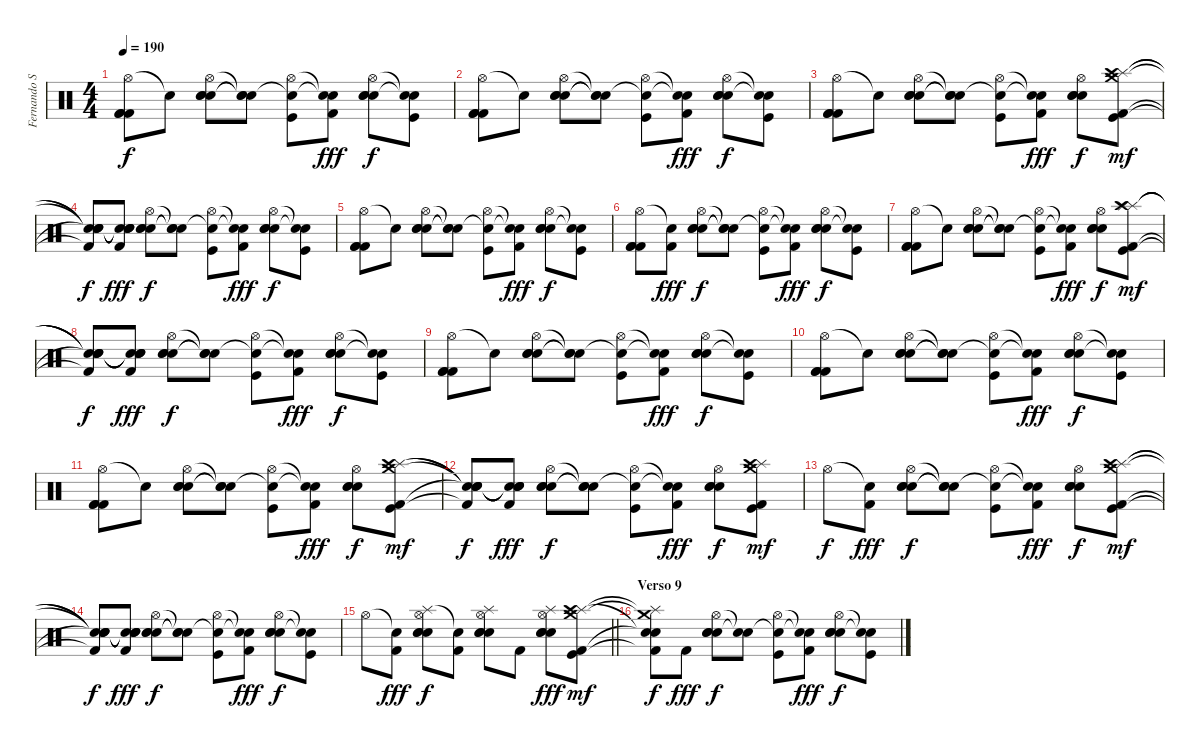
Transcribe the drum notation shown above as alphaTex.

\track ("Fernando Sarcella" "Fernando S") {instrument percussion}
\staff {score}
\articulation defaults
\ts (4 4)
\tempo 190
\clef neutral
\ks c
("Hi-Hat (open)" "Kick (hit) 2" "Kick (hit) 2" "Kick (hit) 2").8{dy f} "Snare (hit)"{t}.8 ("Hi-Hat (open)" "Electric Snare (hit)" "Electric Snare (hit)" "Electric Snare (hit)").8 ("Snare (hit)"{t} "Snare (hit)"{t} "Snare (hit)"{t}).8 ("Hi-Hat (open)" "Snare (hit)"{t} "Kick (hit)").8 ("Snare (hit)"{t} "Snare (hit)"{t} "Kick (hit) 2").8{dy fff} ("Hi-Hat (open)" "Electric Snare (hit)" "Electric Snare (hit)" "Electric Snare (hit)").8{dy f} ("Snare (hit)"{t} "Snare (hit)"{t} "Kick (hit)").8 |
("Hi-Hat (open)" "Kick (hit) 2" "Kick (hit) 2" "Kick (hit) 2").8 "Snare (hit)"{t}.8 ("Hi-Hat (open)" "Electric Snare (hit)" "Electric Snare (hit)" "Electric Snare (hit)").8 ("Snare (hit)"{t} "Snare (hit)"{t} "Snare (hit)"{t}).8 ("Hi-Hat (open)" "Snare (hit)"{t} "Kick (hit)").8 ("Snare (hit)"{t} "Snare (hit)"{t} "Kick (hit) 2").8{dy fff} ("Hi-Hat (open)" "Electric Snare (hit)" "Electric Snare (hit)" "Electric Snare (hit)").8{dy f} ("Snare (hit)"{t} "Snare (hit)"{t} "Kick (hit)").8 |
("Hi-Hat (open)" "Kick (hit) 2" "Kick (hit) 2" "Kick (hit) 2").8 "Snare (hit)"{t}.8 ("Hi-Hat (open)" "Electric Snare (hit)" "Electric Snare (hit)" "Electric Snare (hit)").8 ("Snare (hit)"{t} "Snare (hit)"{t} "Snare (hit)"{t}).8 ("Hi-Hat (open)" "Snare (hit)"{t} "Kick (hit)").8 ("Snare (hit)"{t} "Snare (hit)"{t} "Kick (hit) 2").8{dy fff} ("Hi-Hat (open)" "Electric Snare (hit)" "Electric Snare (hit)" "Electric Snare (hit)").8{dy f} ("Crash medium (hit)" "Splash (hit)" "Crash high (hit)" "Kick (hit) 2" "Kick (hit)").8{dy mf} |
("Snare (hit)"{t} "Snare (hit)"{t} "Snare (hit)"{t} "Snare (hit)"{t} "Kick (hit) 2"{t}).8{dy f} ("Snare (hit)"{t} "Snare (hit)"{t} "Snare (hit)"{t} "Snare (hit)"{t} "Kick (hit) 2").8{dy fff} ("Hi-Hat (open)" "Electric Snare (hit)" "Electric Snare (hit)" "Electric Snare (hit)").8{dy f} ("Snare (hit)"{t} "Snare (hit)"{t} "Snare (hit)"{t}).8 ("Hi-Hat (open)" "Snare (hit)"{t} "Kick (hit)").8 ("Snare (hit)"{t} "Snare (hit)"{t} "Kick (hit) 2").8{dy fff} ("Hi-Hat (open)" "Electric Snare (hit)" "Electric Snare (hit)" "Electric Snare (hit)").8{dy f} ("Snare (hit)"{t} "Snare (hit)"{t} "Kick (hit)").8 |
("Hi-Hat (open)" "Kick (hit) 2" "Kick (hit) 2" "Kick (hit) 2").8 "Snare (hit)"{t}.8 ("Hi-Hat (open)" "Electric Snare (hit)" "Electric Snare (hit)" "Electric Snare (hit)").8 ("Snare (hit)"{t} "Snare (hit)"{t} "Snare (hit)"{t}).8 ("Hi-Hat (open)" "Snare (hit)"{t} "Kick (hit)").8 ("Snare (hit)"{t} "Snare (hit)"{t} "Kick (hit) 2").8{dy fff} ("Hi-Hat (open)" "Electric Snare (hit)" "Electric Snare (hit)" "Electric Snare (hit)").8{dy f} ("Snare (hit)"{t} "Snare (hit)"{t} "Kick (hit)").8 |
("Hi-Hat (open)" "Kick (hit) 2" "Kick (hit) 2" "Kick (hit) 2").8 ("Snare (hit)"{t} "Kick (hit) 2").8{dy fff} ("Hi-Hat (open)" "Electric Snare (hit)" "Electric Snare (hit)" "Electric Snare (hit)").8{dy f} ("Snare (hit)"{t} "Snare (hit)"{t} "Snare (hit)"{t}).8 ("Hi-Hat (open)" "Snare (hit)"{t} "Kick (hit)").8 ("Snare (hit)"{t} "Snare (hit)"{t} "Kick (hit) 2").8{dy fff} ("Hi-Hat (open)" "Electric Snare (hit)" "Electric Snare (hit)" "Electric Snare (hit)").8{dy f} ("Snare (hit)"{t} "Snare (hit)"{t} "Kick (hit)").8 |
("Hi-Hat (open)" "Kick (hit) 2" "Kick (hit) 2" "Kick (hit) 2").8 "Snare (hit)"{t}.8 ("Hi-Hat (open)" "Electric Snare (hit)" "Electric Snare (hit)" "Electric Snare (hit)").8 ("Snare (hit)"{t} "Snare (hit)"{t} "Snare (hit)"{t}).8 ("Hi-Hat (open)" "Snare (hit)"{t} "Kick (hit)").8 ("Snare (hit)"{t} "Snare (hit)"{t} "Kick (hit) 2").8{dy fff} ("Hi-Hat (open)" "Electric Snare (hit)" "Electric Snare (hit)" "Electric Snare (hit)").8{dy f} ("Splash (hit)" "Splash (hit)" "Crash high (hit)" "Kick (hit) 2" "Kick (hit)").8{dy mf} |
("Snare (hit)"{t} "Snare (hit)"{t} "Snare (hit)"{t} "Snare (hit)"{t} "Kick (hit) 2"{t}).8{dy f} ("Snare (hit)"{t} "Snare (hit)"{t} "Snare (hit)"{t} "Snare (hit)"{t} "Kick (hit) 2").8{dy fff} ("Hi-Hat (open)" "Electric Snare (hit)" "Electric Snare (hit)" "Electric Snare (hit)").8{dy f} ("Snare (hit)"{t} "Snare (hit)"{t} "Snare (hit)"{t}).8 ("Hi-Hat (open)" "Snare (hit)"{t} "Kick (hit)").8 ("Snare (hit)"{t} "Snare (hit)"{t} "Kick (hit) 2").8{dy fff} ("Hi-Hat (open)" "Electric Snare (hit)" "Electric Snare (hit)" "Electric Snare (hit)").8{dy f} ("Snare (hit)"{t} "Snare (hit)"{t} "Kick (hit)").8 |
("Hi-Hat (open)" "Kick (hit) 2" "Kick (hit) 2" "Kick (hit) 2").8 "Snare (hit)"{t}.8 ("Hi-Hat (open)" "Electric Snare (hit)" "Electric Snare (hit)" "Electric Snare (hit)").8 ("Snare (hit)"{t} "Snare (hit)"{t} "Snare (hit)"{t}).8 ("Hi-Hat (open)" "Snare (hit)"{t} "Kick (hit)").8 ("Snare (hit)"{t} "Snare (hit)"{t} "Kick (hit) 2").8{dy fff} ("Hi-Hat (open)" "Electric Snare (hit)" "Electric Snare (hit)" "Electric Snare (hit)").8{dy f} ("Snare (hit)"{t} "Snare (hit)"{t} "Kick (hit)").8 |
("Hi-Hat (open)" "Kick (hit) 2" "Kick (hit) 2" "Kick (hit) 2").8 "Snare (hit)"{t}.8 ("Hi-Hat (open)" "Electric Snare (hit)" "Electric Snare (hit)" "Electric Snare (hit)").8 ("Snare (hit)"{t} "Snare (hit)"{t} "Snare (hit)"{t}).8 ("Hi-Hat (open)" "Snare (hit)"{t} "Kick (hit)").8 ("Snare (hit)"{t} "Snare (hit)"{t} "Kick (hit) 2").8{dy fff} ("Hi-Hat (open)" "Electric Snare (hit)" "Electric Snare (hit)" "Electric Snare (hit)").8{dy f} ("Snare (hit)"{t} "Snare (hit)"{t} "Kick (hit)").8 |
("Hi-Hat (open)" "Kick (hit) 2" "Kick (hit) 2" "Kick (hit) 2").8 "Snare (hit)"{t}.8 ("Hi-Hat (open)" "Electric Snare (hit)" "Electric Snare (hit)" "Electric Snare (hit)").8 ("Snare (hit)"{t} "Snare (hit)"{t} "Snare (hit)"{t}).8 ("Hi-Hat (open)" "Snare (hit)"{t} "Kick (hit)").8 ("Snare (hit)"{t} "Snare (hit)"{t} "Kick (hit) 2").8{dy fff} ("Hi-Hat (open)" "Electric Snare (hit)" "Electric Snare (hit)" "Electric Snare (hit)").8{dy f} ("Crash medium (hit)" "Splash (hit)" "Crash high (hit)" "Kick (hit) 2" "Kick (hit)").8{dy mf} |
("Snare (hit)"{t} "Snare (hit)"{t} "Snare (hit)"{t} "Snare (hit)"{t} "Kick (hit) 2"{t}).8{dy f} ("Snare (hit)"{t} "Snare (hit)"{t} "Snare (hit)"{t} "Snare (hit)"{t} "Kick (hit) 2").8{dy fff} ("Hi-Hat (open)" "Electric Snare (hit)" "Electric Snare (hit)" "Electric Snare (hit)").8{dy f} ("Snare (hit)"{t} "Snare (hit)"{t} "Snare (hit)"{t}).8 ("Hi-Hat (open)" "Snare (hit)"{t} "Kick (hit)").8 ("Snare (hit)"{t} "Snare (hit)"{t} "Kick (hit) 2").8{dy fff} ("Hi-Hat (open)" "Electric Snare (hit)" "Electric Snare (hit)" "Electric Snare (hit)").8{dy f} ("Crash medium (hit)" "Splash (hit)" "Crash high (hit)" "Kick (hit) 2" "Kick (hit)").8{dy mf} |
"Hi-Hat (open)".8{dy f} ("Snare (hit)"{t} "Kick (hit) 2").8{dy fff} ("Hi-Hat (open)" "Electric Snare (hit)" "Electric Snare (hit)" "Electric Snare (hit)").8{dy f} ("Snare (hit)"{t} "Snare (hit)"{t} "Snare (hit)"{t}).8 ("Hi-Hat (open)" "Snare (hit)"{t} "Kick (hit)").8 ("Snare (hit)"{t} "Snare (hit)"{t} "Kick (hit) 2").8{dy fff} ("Hi-Hat (open)" "Electric Snare (hit)" "Electric Snare (hit)" "Electric Snare (hit)").8{dy f} ("Crash medium (hit)" "Splash (hit)" "Crash high (hit)" "Kick (hit) 2" "Kick (hit)").8{dy mf} |
("Snare (hit)"{t} "Snare (hit)"{t} "Snare (hit)"{t} "Snare (hit)"{t} "Kick (hit) 2"{t}).8{dy f} ("Snare (hit)"{t} "Snare (hit)"{t} "Snare (hit)"{t} "Snare (hit)"{t} "Kick (hit) 2").8{dy fff} ("Hi-Hat (open)" "Electric Snare (hit)" "Electric Snare (hit)" "Electric Snare (hit)").8{dy f} ("Snare (hit)"{t} "Snare (hit)"{t} "Snare (hit)"{t}).8 ("Hi-Hat (open)" "Snare (hit)"{t} "Kick (hit)").8 ("Snare (hit)"{t} "Snare (hit)"{t} "Kick (hit) 2").8{dy fff} ("Hi-Hat (open)" "Electric Snare (hit)" "Electric Snare (hit)" "Electric Snare (hit)").8{dy f} ("Snare (hit)"{t} "Snare (hit)"{t} "Kick (hit)").8 |
\barLineRight lightlight "Hi-Hat (open)".8
("Snare (hit)"{t} "Kick (hit) 2").8{dy fff} ("Splash (hit)" "Hi-Hat (open)" "Electric Snare (hit)" "Electric Snare (hit)" "Electric Snare (hit)").8{dy f} ("Snare (hit)"{t} "Kick (hit) 2").8 ("Splash (hit)" "Electric Snare (hit)" "Hi-Hat (open)" "Electric Snare (hit)" "Electric Snare (hit)").8 "Kick (hit) 2".8 ("Splash (hit)" "Electric Snare (hit)" "Hi-Hat (open)" "Electric Snare (hit)" "Electric Snare (hit)").8{dy fff} ("Crash medium (hit)" "Splash (hit)" "Crash high (hit)" "Kick (hit) 2" "Kick (hit)").8{dy mf} |
\section ("" "Verso 9")
("Crash medium (hit)"{t} "Splash (hit)"{t} "Snare (hit)"{t} "Snare (hit)"{t} "Kick (hit) 2"{t}).8{dy f} "Kick (hit) 2".8{dy fff} ("Hi-Hat (open)" "Electric Snare (hit)" "Electric Snare (hit)" "Electric Snare (hit)").8{dy f} ("Snare (hit)"{t} "Snare (hit)"{t}).8 ("Hi-Hat (open)" "Snare (hit)"{t} "Kick (hit)").8 ("Snare (hit)"{t} "Snare (hit)"{t} "Kick (hit) 2").8{dy fff} ("Hi-Hat (open)" "Electric Snare (hit)" "Electric Snare (hit)" "Electric Snare (hit)").8{dy f} ("Snare (hit)"{t} "Snare (hit)"{t} "Kick (hit)").8
